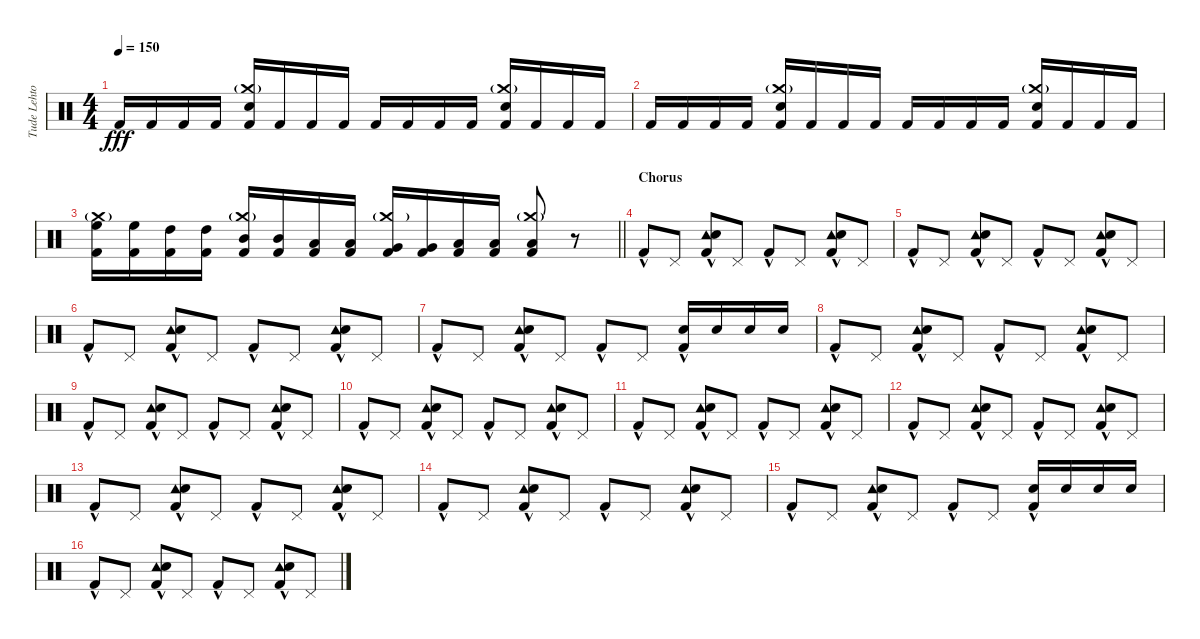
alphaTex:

\track ("Tude Lehtonen" "Tude Lehto") {instrument percussion}
\staff {score}
\articulation defaults
\ts (4 4)
\tempo 150
\clef neutral
\ks c "Kick (hit) 2".16{dy fff} "Kick (hit) 2".16 "Kick (hit) 2".16 "Kick (hit) 2".16
("Crash medium (hit)"{g} "Snare (hit) 2" "Kick (hit) 2").16 "Kick (hit) 2".16 "Kick (hit) 2".16 "Kick (hit) 2".16 "Kick (hit) 2".16 "Kick (hit) 2".16 "Kick (hit) 2".16 "Kick (hit) 2".16 ("Crash medium (hit)"{g} "Snare (hit) 2" "Kick (hit) 2").16 "Kick (hit) 2".16 "Kick (hit) 2".16 "Kick (hit) 2".16 |
"Kick (hit) 2".16 "Kick (hit) 2".16 "Kick (hit) 2".16 "Kick (hit) 2".16 ("Crash medium (hit)"{g} "Snare (hit) 2" "Kick (hit) 2").16 "Kick (hit) 2".16 "Kick (hit) 2".16 "Kick (hit) 2".16 "Kick (hit) 2".16 "Kick (hit) 2".16 "Kick (hit) 2".16 "Kick (hit) 2".16 ("Crash medium (hit)"{g} "Snare (hit) 2" "Kick (hit) 2").16 "Kick (hit) 2".16 "Kick (hit) 2".16 "Kick (hit) 2".16 |
\barLineRight lightlight
("Crash medium (hit)"{g} "High Floor Tom (hit)" "Kick (hit) 2").16 ("High Floor Tom (hit)" "Kick (hit) 2").16 ("High Tom (hit)" "Kick (hit) 2").16 ("High Tom (hit)" "Kick (hit) 2").16 ("Crash medium (hit)"{g} "Mid Tom (hit)" "Kick (hit) 2").16 ("Mid Tom (hit)" "Kick (hit) 2").16 ("Low Tom (hit)" "Kick (hit) 2").16 ("Low Tom (hit)" "Kick (hit) 2").16 ("Crash medium (hit)"{g} "Very Low Tom (hit)" "Kick (hit) 2").16 ("Very Low Tom (hit)" "Kick (hit) 2").16 ("Low Floor Tom (hit)" "Kick (hit) 2").16 ("Low Floor Tom (hit)" "Kick (hit) 2").16 ("Crash medium (hit)"{g} "Low Floor Tom (hit)" "Kick (hit) 2").8 r.8 |
\section ("" "Chorus")
"Kick (hit) 2"{hac}.8 "Pedal Hi-Hat (hit)".8 ("Tambourine (hit)" "Snare (hit) 2" "Kick (hit) 2"{hac}).8 "Pedal Hi-Hat (hit)".8 "Kick (hit) 2"{hac}.8 "Pedal Hi-Hat (hit)".8 ("Tambourine (hit)" "Snare (hit) 2" "Kick (hit) 2"{hac}).8 "Pedal Hi-Hat (hit)".8 |
"Kick (hit) 2"{hac}.8 "Pedal Hi-Hat (hit)".8 ("Tambourine (hit)" "Snare (hit) 2" "Kick (hit) 2"{hac}).8 "Pedal Hi-Hat (hit)".8 "Kick (hit) 2"{hac}.8 "Pedal Hi-Hat (hit)".8 ("Tambourine (hit)" "Snare (hit) 2" "Kick (hit) 2"{hac}).8 "Pedal Hi-Hat (hit)".8 |
"Kick (hit) 2"{hac}.8 "Pedal Hi-Hat (hit)".8 ("Tambourine (hit)" "Snare (hit) 2" "Kick (hit) 2"{hac}).8 "Pedal Hi-Hat (hit)".8 "Kick (hit) 2"{hac}.8 "Pedal Hi-Hat (hit)".8 ("Tambourine (hit)" "Snare (hit) 2" "Kick (hit) 2"{hac}).8 "Pedal Hi-Hat (hit)".8 |
"Kick (hit) 2"{hac}.8 "Pedal Hi-Hat (hit)".8 ("Tambourine (hit)" "Snare (hit) 2" "Kick (hit) 2"{hac}).8 "Pedal Hi-Hat (hit)".8 "Kick (hit) 2"{hac}.8 "Pedal Hi-Hat (hit)".8 ("Snare (hit) 2" "Kick (hit) 2"{hac}).16 "Snare (hit) 2".16 "Snare (hit) 2".16 "Snare (hit) 2".16 |
"Kick (hit) 2"{hac}.8 "Pedal Hi-Hat (hit)".8 ("Tambourine (hit)" "Snare (hit) 2" "Kick (hit) 2"{hac}).8 "Pedal Hi-Hat (hit)".8 "Kick (hit) 2"{hac}.8 "Pedal Hi-Hat (hit)".8 ("Tambourine (hit)" "Snare (hit) 2" "Kick (hit) 2"{hac}).8 "Pedal Hi-Hat (hit)".8 |
"Kick (hit) 2"{hac}.8 "Pedal Hi-Hat (hit)".8 ("Tambourine (hit)" "Snare (hit) 2" "Kick (hit) 2"{hac}).8 "Pedal Hi-Hat (hit)".8 "Kick (hit) 2"{hac}.8 "Pedal Hi-Hat (hit)".8 ("Tambourine (hit)" "Snare (hit) 2" "Kick (hit) 2"{hac}).8 "Pedal Hi-Hat (hit)".8 |
"Kick (hit) 2"{hac}.8 "Pedal Hi-Hat (hit)".8 ("Tambourine (hit)" "Snare (hit) 2" "Kick (hit) 2"{hac}).8 "Pedal Hi-Hat (hit)".8 "Kick (hit) 2"{hac}.8 "Pedal Hi-Hat (hit)".8 ("Tambourine (hit)" "Snare (hit) 2" "Kick (hit) 2"{hac}).8 "Pedal Hi-Hat (hit)".8 |
"Kick (hit) 2"{hac}.8 "Pedal Hi-Hat (hit)".8 ("Tambourine (hit)" "Snare (hit) 2" "Kick (hit) 2"{hac}).8 "Pedal Hi-Hat (hit)".8 "Kick (hit) 2"{hac}.8 "Pedal Hi-Hat (hit)".8 ("Tambourine (hit)" "Snare (hit) 2" "Kick (hit) 2"{hac}).8 "Pedal Hi-Hat (hit)".8 |
"Kick (hit) 2"{hac}.8 "Pedal Hi-Hat (hit)".8 ("Tambourine (hit)" "Snare (hit) 2" "Kick (hit) 2"{hac}).8 "Pedal Hi-Hat (hit)".8 "Kick (hit) 2"{hac}.8 "Pedal Hi-Hat (hit)".8 ("Tambourine (hit)" "Snare (hit) 2" "Kick (hit) 2"{hac}).8 "Pedal Hi-Hat (hit)".8 |
"Kick (hit) 2"{hac}.8 "Pedal Hi-Hat (hit)".8 ("Tambourine (hit)" "Snare (hit) 2" "Kick (hit) 2"{hac}).8 "Pedal Hi-Hat (hit)".8 "Kick (hit) 2"{hac}.8 "Pedal Hi-Hat (hit)".8 ("Tambourine (hit)" "Snare (hit) 2" "Kick (hit) 2"{hac}).8 "Pedal Hi-Hat (hit)".8 |
"Kick (hit) 2"{hac}.8 "Pedal Hi-Hat (hit)".8 ("Tambourine (hit)" "Snare (hit) 2" "Kick (hit) 2"{hac}).8 "Pedal Hi-Hat (hit)".8 "Kick (hit) 2"{hac}.8 "Pedal Hi-Hat (hit)".8 ("Tambourine (hit)" "Snare (hit) 2" "Kick (hit) 2"{hac}).8 "Pedal Hi-Hat (hit)".8 |
"Kick (hit) 2"{hac}.8 "Pedal Hi-Hat (hit)".8 ("Tambourine (hit)" "Snare (hit) 2" "Kick (hit) 2"{hac}).8 "Pedal Hi-Hat (hit)".8 "Kick (hit) 2"{hac}.8 "Pedal Hi-Hat (hit)".8 ("Snare (hit) 2" "Kick (hit) 2"{hac}).16 "Snare (hit) 2".16 "Snare (hit) 2".16 "Snare (hit) 2".16 |
"Kick (hit) 2"{hac}.8 "Pedal Hi-Hat (hit)".8 ("Tambourine (hit)" "Snare (hit) 2" "Kick (hit) 2"{hac}).8 "Pedal Hi-Hat (hit)".8 "Kick (hit) 2"{hac}.8 "Pedal Hi-Hat (hit)".8 ("Tambourine (hit)" "Snare (hit) 2" "Kick (hit) 2"{hac}).8 "Pedal Hi-Hat (hit)".8
